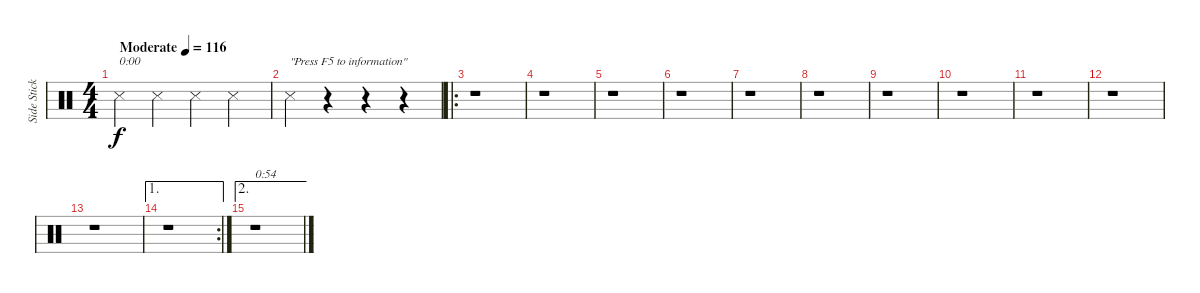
\track ("Side Stick" "Side Stick") {instrument percussion}
\staff {score}
\articulation defaults
\ts (4 4)
\tempo (116 "Moderate")
\clef neutral
\ks c "Snare (side stick) 3".4{txt "0:00" dy f} "Snare (side stick) 3".4 "Snare (side stick) 3".4 "Snare (side stick) 3".4
|
"Snare (side stick) 3".4{txt "\"Press F5 to information\""} r.4 r.4 r.4 |
\ro
r.1 |
r.1 |
r.1 |
r.1 |
r.1 |
r.1 |
r.1 |
r.1 |
r.1 |
r.1 |
r.1 |
\ae 1
\rc 2
r.1 |
\ae 2
r.1{txt "0:54"}
